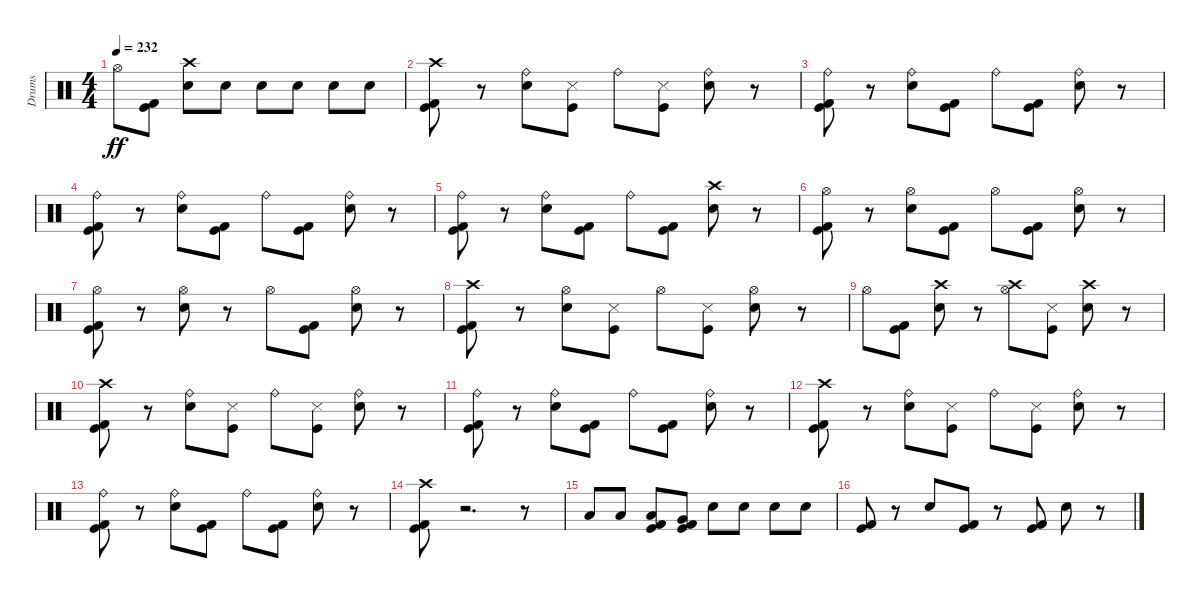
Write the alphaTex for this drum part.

\track ("Drums" "Drums") {instrument percussion}
\staff {score}
\articulation defaults
\ts (4 4)
\tempo 232
\clef neutral
\ks c "Hi-Hat (open)".8{dy ff}
("Kick (hit)" "Kick (hit) 2").8 ("Snare (hit) 2" "Crash high (hit)").8 "Snare (hit) 2".8 "Snare (hit) 2".8 "Snare (hit) 2".8 "Snare (hit) 2".8 "Snare (hit) 2".8 |
("Kick (hit)" "Kick (hit) 2" "Crash high (hit)").8 r.8 ("Snare (hit) 2" "Ride (bell)").8 ("Kick (hit)" "Snare (side stick) 3").8 "Ride (bell)".8 ("Kick (hit)" "Snare (side stick) 3").8 ("Snare (hit) 2" "Ride (bell)").8 r.8 |
("Kick (hit)" "Kick (hit) 2" "Ride (bell)").8 r.8 ("Snare (hit) 2" "Ride (bell)").8 ("Kick (hit)" "Kick (hit) 2").8 "Ride (bell)".8 ("Kick (hit)" "Kick (hit) 2").8 ("Snare (hit) 2" "Ride (bell)").8 r.8 |
("Kick (hit)" "Kick (hit) 2" "Ride (bell)").8 r.8 ("Snare (hit) 2" "Ride (bell)").8 ("Kick (hit)" "Kick (hit) 2").8 "Ride (bell)".8 ("Kick (hit)" "Kick (hit) 2").8 ("Snare (hit) 2" "Ride (bell)").8 r.8 |
("Kick (hit)" "Kick (hit) 2" "Ride (bell)").8 r.8 ("Snare (hit) 2" "Ride (bell)").8 ("Kick (hit)" "Kick (hit) 2").8 "Ride (bell)".8 ("Kick (hit)" "Kick (hit) 2").8 ("Snare (hit) 2" "Crash high (hit)").8 r.8 |
("Kick (hit)" "Kick (hit) 2" "Hi-Hat (open)").8 r.8 ("Snare (hit) 2" "Hi-Hat (open)").8 ("Kick (hit)" "Kick (hit) 2").8 "Hi-Hat (open)".8 ("Kick (hit)" "Kick (hit) 2").8 ("Snare (hit) 2" "Hi-Hat (open)").8 r.8 |
("Kick (hit)" "Kick (hit) 2" "Hi-Hat (open)").8 r.8 ("Snare (hit) 2" "Hi-Hat (open)").8 r.8 "Hi-Hat (open)".8 ("Kick (hit)" "Kick (hit) 2").8 ("Snare (hit) 2" "Hi-Hat (open)").8 r.8 |
("Kick (hit)" "Kick (hit) 2" "Crash high (hit)").8 r.8 ("Snare (hit) 2" "Hi-Hat (open)").8 ("Kick (hit)" "Snare (side stick) 3").8 "Hi-Hat (open)".8 ("Kick (hit)" "Snare (side stick) 3").8 ("Snare (hit) 2" "Hi-Hat (open)").8 r.8 |
"Hi-Hat (open)".8 ("Kick (hit)" "Kick (hit) 2").8 ("Snare (hit) 2" "Crash high (hit)").8 r.8 ("Hi-Hat (open)" "Crash high (hit)").8 ("Kick (hit)" "Snare (side stick) 3").8 ("Snare (hit) 2" "Crash high (hit)").8 r.8 |
("Kick (hit)" "Kick (hit) 2" "Crash high (hit)").8 r.8 ("Snare (hit) 2" "Ride (bell)").8 ("Kick (hit)" "Snare (side stick) 3").8 "Ride (bell)".8 ("Kick (hit)" "Snare (side stick) 3").8 ("Snare (hit) 2" "Ride (bell)").8 r.8 |
("Kick (hit)" "Kick (hit) 2" "Ride (bell)").8 r.8 ("Snare (hit) 2" "Ride (bell)").8 ("Kick (hit)" "Kick (hit) 2").8 "Ride (bell)".8 ("Kick (hit)" "Kick (hit) 2").8 ("Snare (hit) 2" "Ride (bell)").8 r.8 |
("Kick (hit)" "Kick (hit) 2" "Crash high (hit)").8 r.8 ("Snare (hit) 2" "Ride (bell)").8 ("Kick (hit)" "Snare (side stick) 3").8 "Ride (bell)".8 ("Kick (hit)" "Snare (side stick) 3").8 ("Snare (hit) 2" "Ride (bell)").8 r.8 |
("Kick (hit)" "Kick (hit) 2" "Ride (bell)").8 r.8 ("Snare (hit) 2" "Ride (bell)").8 ("Kick (hit)" "Kick (hit) 2").8 "Ride (bell)".8 ("Kick (hit)" "Kick (hit) 2").8 ("Snare (hit) 2" "Ride (bell)").8 r.8 |
("Kick (hit)" "Kick (hit) 2" "Crash high (hit)").8 r.2{d} r.8 |
"Low Floor Tom (hit)".8 "Low Floor Tom (hit)".8 ("Kick (hit)" "Kick (hit) 2" "Low Tom (hit)").8 ("Kick (hit)" "Kick (hit) 2" "Very Low Tom (hit)").8 "Snare (hit) 2".8 "Snare (hit) 2".8 "Snare (hit) 2".8 "Snare (hit) 2".8 |
("Kick (hit)" "Kick (hit) 2").8 r.8 "Snare (hit) 2".8 ("Kick (hit)" "Kick (hit) 2").8 r.8 ("Kick (hit)" "Kick (hit) 2").8 "Snare (hit) 2".8 r.8
